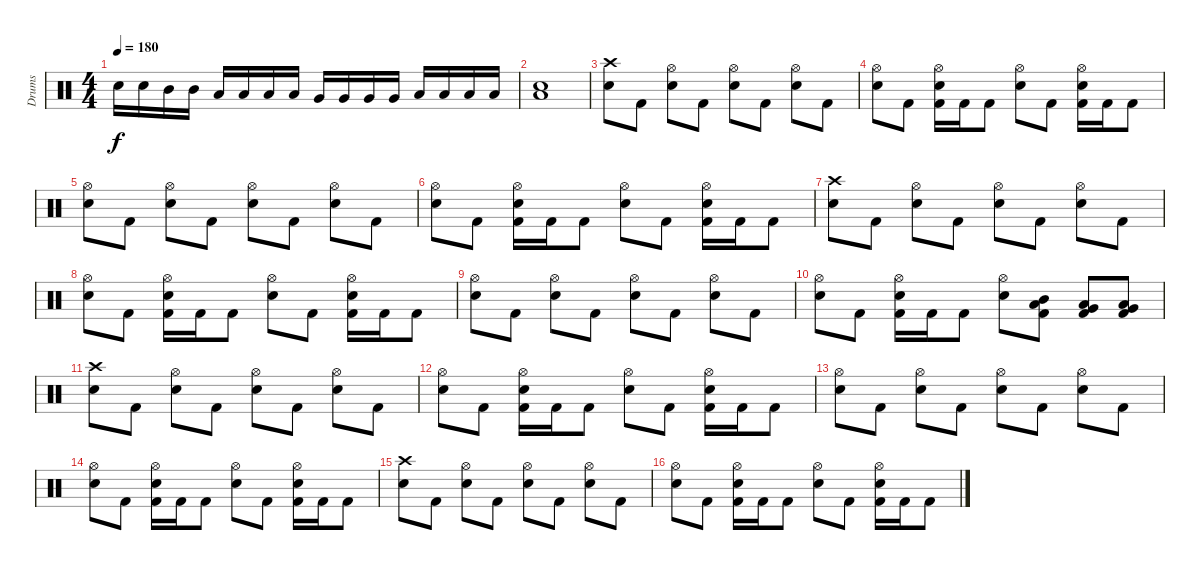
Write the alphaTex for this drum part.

\track ("Drums" "Drums") {instrument percussion}
\staff {score}
\articulation defaults
\ts (4 4)
\tempo 180
\clef neutral
\ks c "Electric Snare (hit)".16{dy f} "Electric Snare (hit)".16 "Mid Tom (hit)".16 "Mid Tom (hit)".16 "Low Tom (hit)".16 "Low Tom (hit)".16 "Low Tom (hit)".16 "Low Tom (hit)".16 "Very Low Tom (hit)".16 "Very Low Tom (hit)".16 "Very Low Tom (hit)".16 "Very Low Tom (hit)".16 "Low Floor Tom (hit)".16 "Low Floor Tom (hit)".16 "Low Floor Tom (hit)".16 "Low Floor Tom (hit)".16
|
("Low Floor Tom (hit)" "Electric Snare (hit)").1 |
("Crash high (hit)" "Electric Snare (hit)").8 "Kick (hit) 2".8 ("Hi-Hat (open)" "Electric Snare (hit)").8 "Kick (hit) 2".8 ("Hi-Hat (open)" "Electric Snare (hit)").8 "Kick (hit) 2".8 ("Hi-Hat (open)" "Electric Snare (hit)").8 "Kick (hit) 2".8 |
("Hi-Hat (open)" "Electric Snare (hit)").8 "Kick (hit) 2".8 ("Hi-Hat (open)" "Electric Snare (hit)" "Kick (hit) 2").16 "Kick (hit) 2".16 "Kick (hit) 2".8 ("Hi-Hat (open)" "Electric Snare (hit)").8 "Kick (hit) 2".8 ("Hi-Hat (open)" "Electric Snare (hit)" "Kick (hit) 2").16 "Kick (hit) 2".16 "Kick (hit) 2".8 |
("Hi-Hat (open)" "Electric Snare (hit)").8 "Kick (hit) 2".8 ("Hi-Hat (open)" "Electric Snare (hit)").8 "Kick (hit) 2".8 ("Hi-Hat (open)" "Electric Snare (hit)").8 "Kick (hit) 2".8 ("Hi-Hat (open)" "Electric Snare (hit)").8 "Kick (hit) 2".8 |
("Hi-Hat (open)" "Electric Snare (hit)").8 "Kick (hit) 2".8 ("Hi-Hat (open)" "Electric Snare (hit)" "Kick (hit) 2").16 "Kick (hit) 2".16 "Kick (hit) 2".8 ("Hi-Hat (open)" "Electric Snare (hit)").8 "Kick (hit) 2".8 ("Hi-Hat (open)" "Electric Snare (hit)" "Kick (hit) 2").16 "Kick (hit) 2".16 "Kick (hit) 2".8 |
("Crash high (hit)" "Electric Snare (hit)").8 "Kick (hit) 2".8 ("Hi-Hat (open)" "Electric Snare (hit)").8 "Kick (hit) 2".8 ("Hi-Hat (open)" "Electric Snare (hit)").8 "Kick (hit) 2".8 ("Hi-Hat (open)" "Electric Snare (hit)").8 "Kick (hit) 2".8 |
("Hi-Hat (open)" "Electric Snare (hit)").8 "Kick (hit) 2".8 ("Hi-Hat (open)" "Electric Snare (hit)" "Kick (hit) 2").16 "Kick (hit) 2".16 "Kick (hit) 2".8 ("Hi-Hat (open)" "Electric Snare (hit)").8 "Kick (hit) 2".8 ("Hi-Hat (open)" "Electric Snare (hit)" "Kick (hit) 2").16 "Kick (hit) 2".16 "Kick (hit) 2".8 |
("Hi-Hat (open)" "Electric Snare (hit)").8 "Kick (hit) 2".8 ("Hi-Hat (open)" "Electric Snare (hit)").8 "Kick (hit) 2".8 ("Hi-Hat (open)" "Electric Snare (hit)").8 "Kick (hit) 2".8 ("Hi-Hat (open)" "Electric Snare (hit)").8 "Kick (hit) 2".8 |
("Hi-Hat (open)" "Electric Snare (hit)").8 "Kick (hit) 2".8 ("Hi-Hat (open)" "Electric Snare (hit)" "Kick (hit) 2").16 "Kick (hit) 2".16 "Kick (hit) 2".8 ("Hi-Hat (open)" "Electric Snare (hit)").8 ("Mid Tom (hit)" "Low Tom (hit)" "Kick (hit) 2").8 ("Low Tom (hit)" "Very Low Tom (hit)" "Kick (hit) 2").8 ("Low Tom (hit)" "Very Low Tom (hit)" "Kick (hit) 2").8 |
("Crash high (hit)" "Electric Snare (hit)").8 "Kick (hit) 2".8 ("Hi-Hat (open)" "Electric Snare (hit)").8 "Kick (hit) 2".8 ("Hi-Hat (open)" "Electric Snare (hit)").8 "Kick (hit) 2".8 ("Hi-Hat (open)" "Electric Snare (hit)").8 "Kick (hit) 2".8 |
("Hi-Hat (open)" "Electric Snare (hit)").8 "Kick (hit) 2".8 ("Hi-Hat (open)" "Electric Snare (hit)" "Kick (hit) 2").16 "Kick (hit) 2".16 "Kick (hit) 2".8 ("Hi-Hat (open)" "Electric Snare (hit)").8 "Kick (hit) 2".8 ("Hi-Hat (open)" "Electric Snare (hit)" "Kick (hit) 2").16 "Kick (hit) 2".16 "Kick (hit) 2".8 |
("Hi-Hat (open)" "Electric Snare (hit)").8 "Kick (hit) 2".8 ("Hi-Hat (open)" "Electric Snare (hit)").8 "Kick (hit) 2".8 ("Hi-Hat (open)" "Electric Snare (hit)").8 "Kick (hit) 2".8 ("Hi-Hat (open)" "Electric Snare (hit)").8 "Kick (hit) 2".8 |
("Hi-Hat (open)" "Electric Snare (hit)").8 "Kick (hit) 2".8 ("Hi-Hat (open)" "Electric Snare (hit)" "Kick (hit) 2").16 "Kick (hit) 2".16 "Kick (hit) 2".8 ("Hi-Hat (open)" "Electric Snare (hit)").8 "Kick (hit) 2".8 ("Hi-Hat (open)" "Electric Snare (hit)" "Kick (hit) 2").16 "Kick (hit) 2".16 "Kick (hit) 2".8 |
("Crash high (hit)" "Electric Snare (hit)").8 "Kick (hit) 2".8 ("Hi-Hat (open)" "Electric Snare (hit)").8 "Kick (hit) 2".8 ("Hi-Hat (open)" "Electric Snare (hit)").8 "Kick (hit) 2".8 ("Hi-Hat (open)" "Electric Snare (hit)").8 "Kick (hit) 2".8 |
("Hi-Hat (open)" "Electric Snare (hit)").8 "Kick (hit) 2".8 ("Hi-Hat (open)" "Electric Snare (hit)" "Kick (hit) 2").16 "Kick (hit) 2".16 "Kick (hit) 2".8 ("Hi-Hat (open)" "Electric Snare (hit)").8 "Kick (hit) 2".8 ("Hi-Hat (open)" "Electric Snare (hit)" "Kick (hit) 2").16 "Kick (hit) 2".16 "Kick (hit) 2".8
